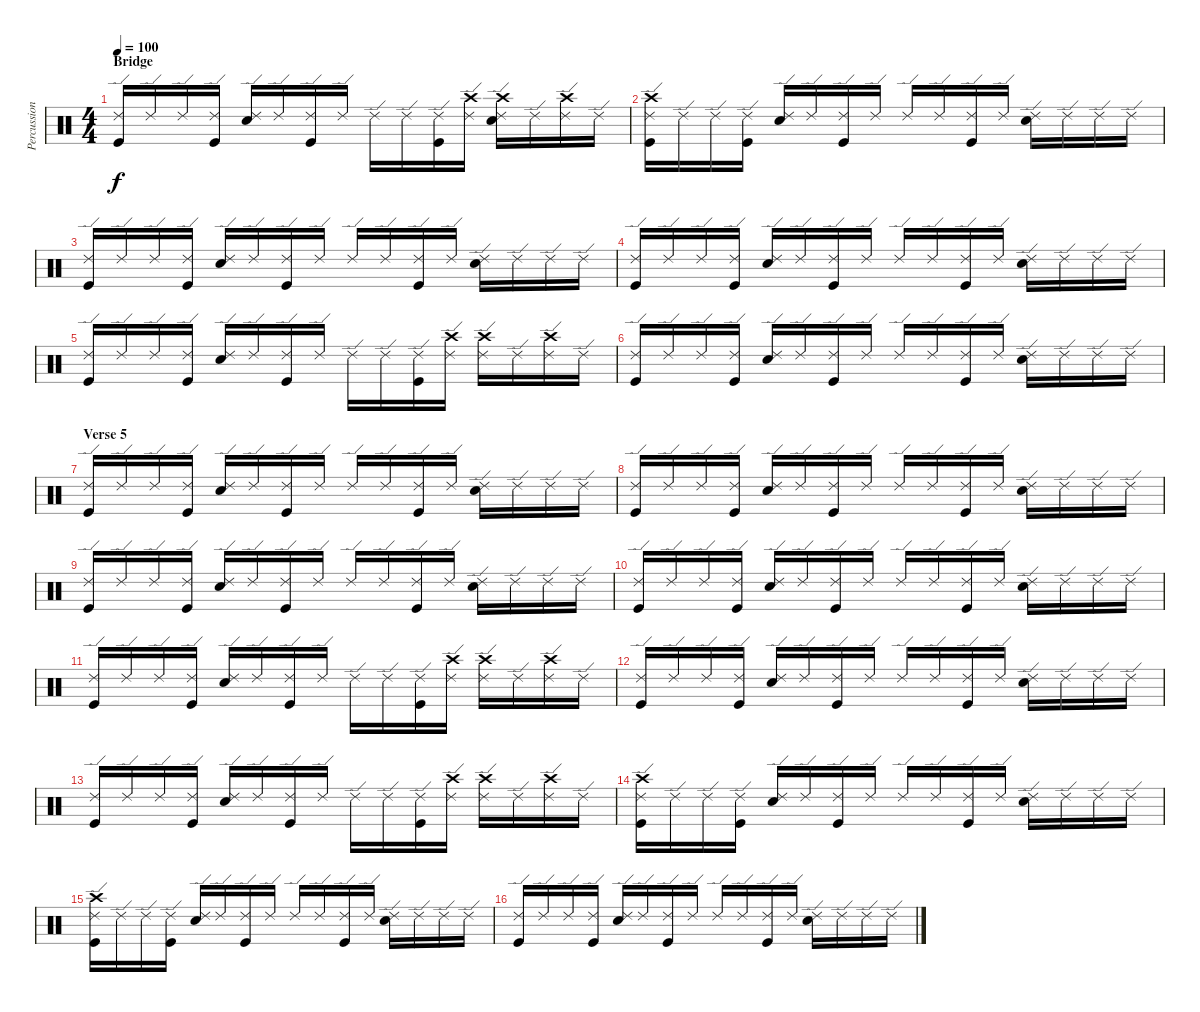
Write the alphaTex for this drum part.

\track ("Percussion" "Percussion") {instrument percussion}
\staff {score}
\articulation defaults
\ts (4 4)
\section ("" "Bridge")
\tempo 100
\clef neutral
\ks c
("Ride (edge) 2" "Kick (hit)").16{dy f} "Ride (edge) 2".16 "Ride (edge) 2".16 ("Ride (edge) 2" "Kick (hit)").16 ("Ride (edge) 2" "Snare (hit) 2").16 "Ride (edge) 2".16 ("Ride (edge) 2" "Kick (hit)").16 "Ride (edge) 2".16 "Ride (edge) 2".16 "Ride (edge) 2".16 ("Ride (edge) 2" "Kick (hit)").16 ("Ride (edge) 2" "Crash high (hit)").16 ("Ride (edge) 2" "Crash high (hit)" "Snare (hit) 2").16 "Ride (edge) 2".16 ("Ride (edge) 2" "Crash high (hit)").16 "Ride (edge) 2".16 |
("Ride (edge) 2" "Crash high (hit)" "Kick (hit)").16 "Ride (edge) 2".16 "Ride (edge) 2".16 ("Ride (edge) 2" "Kick (hit)").16 ("Ride (edge) 2" "Snare (hit) 2").16 "Ride (edge) 2".16 ("Ride (edge) 2" "Kick (hit)").16 "Ride (edge) 2".16 "Ride (edge) 2".16 "Ride (edge) 2".16 ("Ride (edge) 2" "Kick (hit)").16 "Ride (edge) 2".16 ("Ride (edge) 2" "Snare (hit) 2").16 "Ride (edge) 2".16 "Ride (edge) 2".16 "Ride (edge) 2".16 |
("Ride (edge) 2" "Kick (hit)").16 "Ride (edge) 2".16 "Ride (edge) 2".16 ("Ride (edge) 2" "Kick (hit)").16 ("Ride (edge) 2" "Snare (hit) 2").16 "Ride (edge) 2".16 ("Ride (edge) 2" "Kick (hit)").16 "Ride (edge) 2".16 "Ride (edge) 2".16 "Ride (edge) 2".16 ("Ride (edge) 2" "Kick (hit)").16 "Ride (edge) 2".16 ("Ride (edge) 2" "Snare (hit) 2").16 "Ride (edge) 2".16 "Ride (edge) 2".16 "Ride (edge) 2".16 |
("Ride (edge) 2" "Kick (hit)").16 "Ride (edge) 2".16 "Ride (edge) 2".16 ("Ride (edge) 2" "Kick (hit)").16 ("Ride (edge) 2" "Snare (hit) 2").16 "Ride (edge) 2".16 ("Ride (edge) 2" "Kick (hit)").16 "Ride (edge) 2".16 "Ride (edge) 2".16 "Ride (edge) 2".16 ("Ride (edge) 2" "Kick (hit)").16 "Ride (edge) 2".16 ("Ride (edge) 2" "Snare (hit) 2").16 "Ride (edge) 2".16 "Ride (edge) 2".16 "Ride (edge) 2".16 |
("Ride (edge) 2" "Kick (hit)").16 "Ride (edge) 2".16 "Ride (edge) 2".16 ("Ride (edge) 2" "Kick (hit)").16 ("Ride (edge) 2" "Snare (hit) 2").16 "Ride (edge) 2".16 ("Ride (edge) 2" "Kick (hit)").16 "Ride (edge) 2".16 "Ride (edge) 2".16 "Ride (edge) 2".16 ("Ride (edge) 2" "Kick (hit)").16 ("Ride (edge) 2" "Crash high (hit)").16 ("Ride (edge) 2" "Crash high (hit)").16 "Ride (edge) 2".16 ("Ride (edge) 2" "Crash high (hit)").16 "Ride (edge) 2".16 |
("Ride (edge) 2" "Kick (hit)").16 "Ride (edge) 2".16 "Ride (edge) 2".16 ("Ride (edge) 2" "Kick (hit)").16 ("Ride (edge) 2" "Snare (hit) 2").16 "Ride (edge) 2".16 ("Ride (edge) 2" "Kick (hit)").16 "Ride (edge) 2".16 "Ride (edge) 2".16 "Ride (edge) 2".16 ("Ride (edge) 2" "Kick (hit)").16 "Ride (edge) 2".16 ("Ride (edge) 2" "Snare (hit) 2").16 "Ride (edge) 2".16 "Ride (edge) 2".16 "Ride (edge) 2".16 |
\section ("" "Verse 5")
("Ride (edge) 2" "Kick (hit)").16 "Ride (edge) 2".16 "Ride (edge) 2".16 ("Ride (edge) 2" "Kick (hit)").16 ("Ride (edge) 2" "Snare (hit) 2").16 "Ride (edge) 2".16 ("Ride (edge) 2" "Kick (hit)").16 "Ride (edge) 2".16 "Ride (edge) 2".16 "Ride (edge) 2".16 ("Ride (edge) 2" "Kick (hit)").16 "Ride (edge) 2".16 ("Ride (edge) 2" "Snare (hit) 2").16 "Ride (edge) 2".16 "Ride (edge) 2".16 "Ride (edge) 2".16 |
("Ride (edge) 2" "Kick (hit)").16 "Ride (edge) 2".16 "Ride (edge) 2".16 ("Ride (edge) 2" "Kick (hit)").16 ("Ride (edge) 2" "Snare (hit) 2").16 "Ride (edge) 2".16 ("Ride (edge) 2" "Kick (hit)").16 "Ride (edge) 2".16 "Ride (edge) 2".16 "Ride (edge) 2".16 ("Ride (edge) 2" "Kick (hit)").16 "Ride (edge) 2".16 ("Ride (edge) 2" "Snare (hit) 2").16 "Ride (edge) 2".16 "Ride (edge) 2".16 "Ride (edge) 2".16 |
("Ride (edge) 2" "Kick (hit)").16 "Ride (edge) 2".16 "Ride (edge) 2".16 ("Ride (edge) 2" "Kick (hit)").16 ("Ride (edge) 2" "Snare (hit) 2").16 "Ride (edge) 2".16 ("Ride (edge) 2" "Kick (hit)").16 "Ride (edge) 2".16 "Ride (edge) 2".16 "Ride (edge) 2".16 ("Ride (edge) 2" "Kick (hit)").16 "Ride (edge) 2".16 ("Ride (edge) 2" "Snare (hit) 2").16 "Ride (edge) 2".16 "Ride (edge) 2".16 "Ride (edge) 2".16 |
("Ride (edge) 2" "Kick (hit)").16 "Ride (edge) 2".16 "Ride (edge) 2".16 ("Ride (edge) 2" "Kick (hit)").16 ("Ride (edge) 2" "Snare (hit) 2").16 "Ride (edge) 2".16 ("Ride (edge) 2" "Kick (hit)").16 "Ride (edge) 2".16 "Ride (edge) 2".16 "Ride (edge) 2".16 ("Ride (edge) 2" "Kick (hit)").16 "Ride (edge) 2".16 ("Ride (edge) 2" "Snare (hit) 2").16 "Ride (edge) 2".16 "Ride (edge) 2".16 "Ride (edge) 2".16 |
("Ride (edge) 2" "Kick (hit)").16 "Ride (edge) 2".16 "Ride (edge) 2".16 ("Ride (edge) 2" "Kick (hit)").16 ("Ride (edge) 2" "Snare (hit) 2").16 "Ride (edge) 2".16 ("Ride (edge) 2" "Kick (hit)").16 "Ride (edge) 2".16 "Ride (edge) 2".16 "Ride (edge) 2".16 ("Ride (edge) 2" "Kick (hit)").16 ("Ride (edge) 2" "Crash high (hit)").16 ("Ride (edge) 2" "Crash high (hit)").16 "Ride (edge) 2".16 ("Ride (edge) 2" "Crash high (hit)").16 "Ride (edge) 2".16 |
("Ride (edge) 2" "Kick (hit)").16 "Ride (edge) 2".16 "Ride (edge) 2".16 ("Ride (edge) 2" "Kick (hit)").16 ("Ride (edge) 2" "Snare (hit) 2").16 "Ride (edge) 2".16 ("Ride (edge) 2" "Kick (hit)").16 "Ride (edge) 2".16 "Ride (edge) 2".16 "Ride (edge) 2".16 ("Ride (edge) 2" "Kick (hit)").16 "Ride (edge) 2".16 ("Ride (edge) 2" "Snare (hit) 2").16 "Ride (edge) 2".16 "Ride (edge) 2".16 "Ride (edge) 2".16 |
("Ride (edge) 2" "Kick (hit)").16 "Ride (edge) 2".16 "Ride (edge) 2".16 ("Ride (edge) 2" "Kick (hit)").16 ("Ride (edge) 2" "Snare (hit) 2").16 "Ride (edge) 2".16 ("Ride (edge) 2" "Kick (hit)").16 "Ride (edge) 2".16 "Ride (edge) 2".16 "Ride (edge) 2".16 ("Ride (edge) 2" "Kick (hit)").16 ("Ride (edge) 2" "Crash high (hit)").16 ("Ride (edge) 2" "Crash high (hit)").16 "Ride (edge) 2".16 ("Ride (edge) 2" "Crash high (hit)").16 "Ride (edge) 2".16 |
("Ride (edge) 2" "Crash high (hit)" "Kick (hit)").16 "Ride (edge) 2".16 "Ride (edge) 2".16 ("Ride (edge) 2" "Kick (hit)").16 ("Ride (edge) 2" "Snare (hit) 2").16 "Ride (edge) 2".16 ("Ride (edge) 2" "Kick (hit)").16 "Ride (edge) 2".16 "Ride (edge) 2".16 "Ride (edge) 2".16 ("Ride (edge) 2" "Kick (hit)").16 "Ride (edge) 2".16 ("Ride (edge) 2" "Snare (hit) 2").16 "Ride (edge) 2".16 "Ride (edge) 2".16 "Ride (edge) 2".16 |
("Ride (edge) 2" "Crash high (hit)" "Kick (hit)").16 "Ride (edge) 2".16 "Ride (edge) 2".16 ("Ride (edge) 2" "Kick (hit)").16 ("Ride (edge) 2" "Snare (hit) 2").16 "Ride (edge) 2".16 ("Ride (edge) 2" "Kick (hit)").16 "Ride (edge) 2".16 "Ride (edge) 2".16 "Ride (edge) 2".16 ("Ride (edge) 2" "Kick (hit)").16 "Ride (edge) 2".16 ("Ride (edge) 2" "Snare (hit) 2").16 "Ride (edge) 2".16 "Ride (edge) 2".16 "Ride (edge) 2".16 |
("Ride (edge) 2" "Kick (hit)").16 "Ride (edge) 2".16 "Ride (edge) 2".16 ("Ride (edge) 2" "Kick (hit)").16 ("Ride (edge) 2" "Snare (hit) 2").16 "Ride (edge) 2".16 ("Ride (edge) 2" "Kick (hit)").16 "Ride (edge) 2".16 "Ride (edge) 2".16 "Ride (edge) 2".16 ("Ride (edge) 2" "Kick (hit)").16 "Ride (edge) 2".16 ("Ride (edge) 2" "Snare (hit) 2").16 "Ride (edge) 2".16 "Ride (edge) 2".16 "Ride (edge) 2".16
